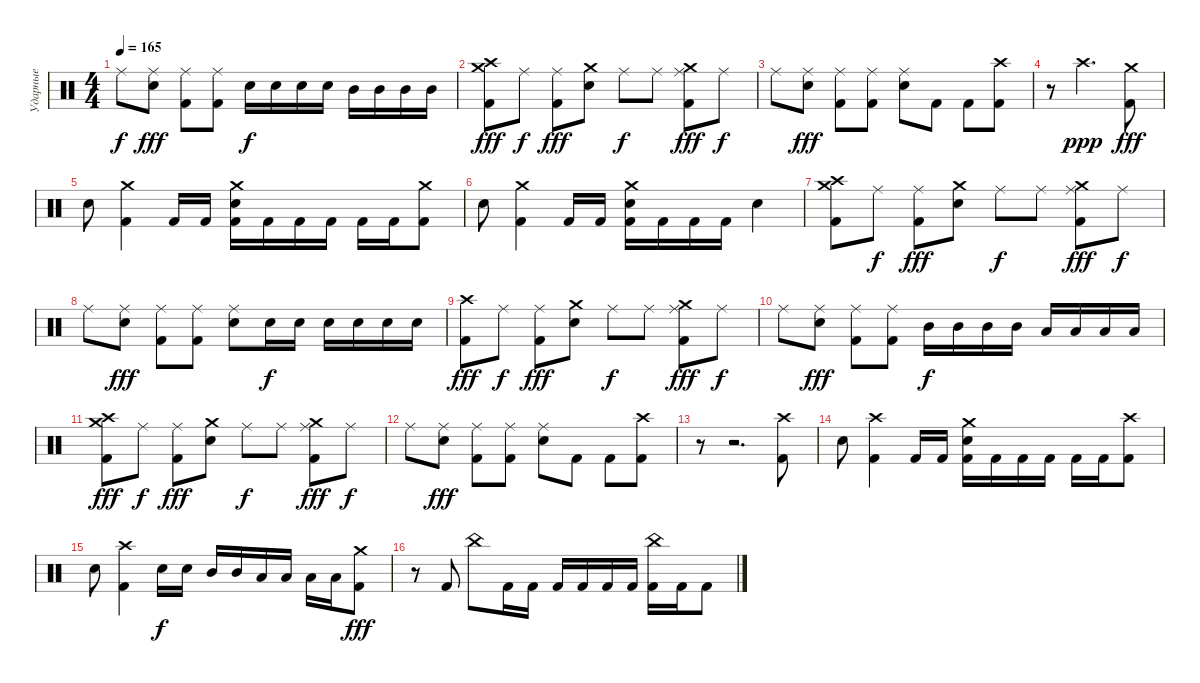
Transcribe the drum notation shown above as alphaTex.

\track ("Ударные" "Ударные") {instrument percussion}
\staff {score}
\articulation defaults
\ts (4 4)
\tempo 165
\clef neutral
\ks c "Ride (middle)".8{dy f}
("Ride (middle)" "Electric Snare (hit)").8{dy fff} ("Ride (middle)" "Kick (hit) 2").8 ("Ride (middle)" "Kick (hit) 2").8 "Electric Snare (hit)".16{dy f} "Electric Snare (hit)".16 "Electric Snare (hit)".16 "Electric Snare (hit)".16 "Mid Tom (hit)".16 "Mid Tom (hit)".16 "Mid Tom (hit)".16 "Mid Tom (hit)".16 |
("Crash high (hit)" "Crash medium (hit)" "Kick (hit) 2").8{dy fff} "Ride (middle)".8{dy f} ("Ride (middle)" "Kick (hit) 2").8{dy fff} ("Crash medium (hit)" "Electric Snare (hit)").8 "Ride (middle)".8{dy f} "Ride (middle)".8 ("Crash medium (hit)" "Ride (middle)" "Kick (hit) 2").8{dy fff} "Ride (middle)".8{dy f} |
"Ride (middle)".8 ("Ride (middle)" "Electric Snare (hit)").8{dy fff} ("Ride (middle)" "Kick (hit) 2").8 ("Ride (middle)" "Kick (hit) 2").8 ("Ride (middle)" "Electric Snare (hit)").8 "Kick (hit) 2".8 "Kick (hit) 2".8 ("Crash high (hit)" "Kick (hit) 2").8 |
r.8 "Crash high (hit)".2{d dy ppp} ("Crash medium (hit)" "Kick (hit) 2").8{dy fff} |
"Electric Snare (hit)".8 ("Crash medium (hit)" "Kick (hit) 2").4 "Kick (hit) 2".16 "Kick (hit) 2".16 ("Crash medium (hit)" "Electric Snare (hit)" "Kick (hit) 2").16 "Kick (hit) 2".16 "Kick (hit) 2".16 "Kick (hit) 2".16 "Kick (hit) 2".16 "Kick (hit) 2".16 ("Crash medium (hit)" "Kick (hit) 2").8 |
"Electric Snare (hit)".8 ("Crash medium (hit)" "Kick (hit) 2").4 "Kick (hit) 2".16 "Kick (hit) 2".16 ("Crash medium (hit)" "Electric Snare (hit)" "Kick (hit) 2").16 "Kick (hit) 2".16 "Kick (hit) 2".16 "Kick (hit) 2".16 "Electric Snare (hit)".4 |
("Crash high (hit)" "Crash medium (hit)" "Kick (hit) 2").8 "Ride (middle)".8{dy f} ("Ride (middle)" "Kick (hit) 2").8{dy fff} ("Crash medium (hit)" "Electric Snare (hit)").8 "Ride (middle)".8{dy f} "Ride (middle)".8 ("Crash medium (hit)" "Ride (middle)" "Kick (hit) 2").8{dy fff} "Ride (middle)".8{dy f} |
"Ride (middle)".8 ("Ride (middle)" "Electric Snare (hit)").8{dy fff} ("Ride (middle)" "Kick (hit) 2").8 ("Ride (middle)" "Kick (hit) 2").8 ("Ride (middle)" "Electric Snare (hit)").8 "Electric Snare (hit)".16{dy f} "Electric Snare (hit)".16 "Electric Snare (hit)".16 "Electric Snare (hit)".16 "Electric Snare (hit)".16 "Electric Snare (hit)".16 |
("Crash high (hit)" "Kick (hit) 2").8{dy fff} "Ride (middle)".8{dy f} ("Ride (middle)" "Kick (hit) 2").8{dy fff} ("Crash medium (hit)" "Electric Snare (hit)").8 "Ride (middle)".8{dy f} "Ride (middle)".8 ("Crash medium (hit)" "Ride (middle)" "Kick (hit) 2").8{dy fff} "Ride (middle)".8{dy f} |
"Ride (middle)".8 ("Ride (middle)" "Electric Snare (hit)").8{dy fff} ("Ride (middle)" "Kick (hit) 2").8 ("Ride (middle)" "Kick (hit) 2").8 "Mid Tom (hit)".16{dy f} "Mid Tom (hit)".16 "Mid Tom (hit)".16 "Mid Tom (hit)".16 "Low Tom (hit)".16 "Low Tom (hit)".16 "Low Tom (hit)".16 "Low Tom (hit)".16 |
("Crash high (hit)" "Crash medium (hit)" "Kick (hit) 2").8{dy fff} "Ride (middle)".8{dy f} ("Ride (middle)" "Kick (hit) 2").8{dy fff} ("Crash medium (hit)" "Electric Snare (hit)").8 "Ride (middle)".8{dy f} "Ride (middle)".8 ("Crash medium (hit)" "Ride (middle)" "Kick (hit) 2").8{dy fff} "Ride (middle)".8{dy f} |
"Ride (middle)".8 ("Ride (middle)" "Electric Snare (hit)").8{dy fff} ("Ride (middle)" "Kick (hit) 2").8 ("Ride (middle)" "Kick (hit) 2").8 ("Ride (middle)" "Electric Snare (hit)").8 "Kick (hit) 2".8 "Kick (hit) 2".8 ("Crash high (hit)" "Kick (hit) 2").8 |
r.8 r.2{d} ("Crash high (hit)" "Kick (hit) 2").8 |
"Electric Snare (hit)".8 ("Crash high (hit)" "Kick (hit) 2").4 "Kick (hit) 2".16 "Kick (hit) 2".16 ("Crash medium (hit)" "Electric Snare (hit)" "Kick (hit) 2").16 "Kick (hit) 2".16 "Kick (hit) 2".16 "Kick (hit) 2".16 "Kick (hit) 2".16 "Kick (hit) 2".16 ("Crash high (hit)" "Kick (hit) 2").8 |
"Electric Snare (hit)".8 ("Crash high (hit)" "Kick (hit) 2").4 "Electric Snare (hit)".16{dy f} "Electric Snare (hit)".16 "Mid Tom (hit)".16 "Mid Tom (hit)".16 "Low Tom (hit)".16 "Low Tom (hit)".16 "Low Floor Tom (hit)".16 "Low Floor Tom (hit)".16 ("Crash medium (hit)" "Kick (hit) 2").8{dy fff} |
r.8 "Kick (hit) 2".8 "China (hit)".8 "Kick (hit) 2".16 "Kick (hit) 2".16 "Kick (hit) 2".16 "Kick (hit) 2".16 "Kick (hit) 2".16 "Kick (hit) 2".16 ("China (hit)" "Kick (hit) 2").16 "Kick (hit) 2".16 "Kick (hit) 2".8
